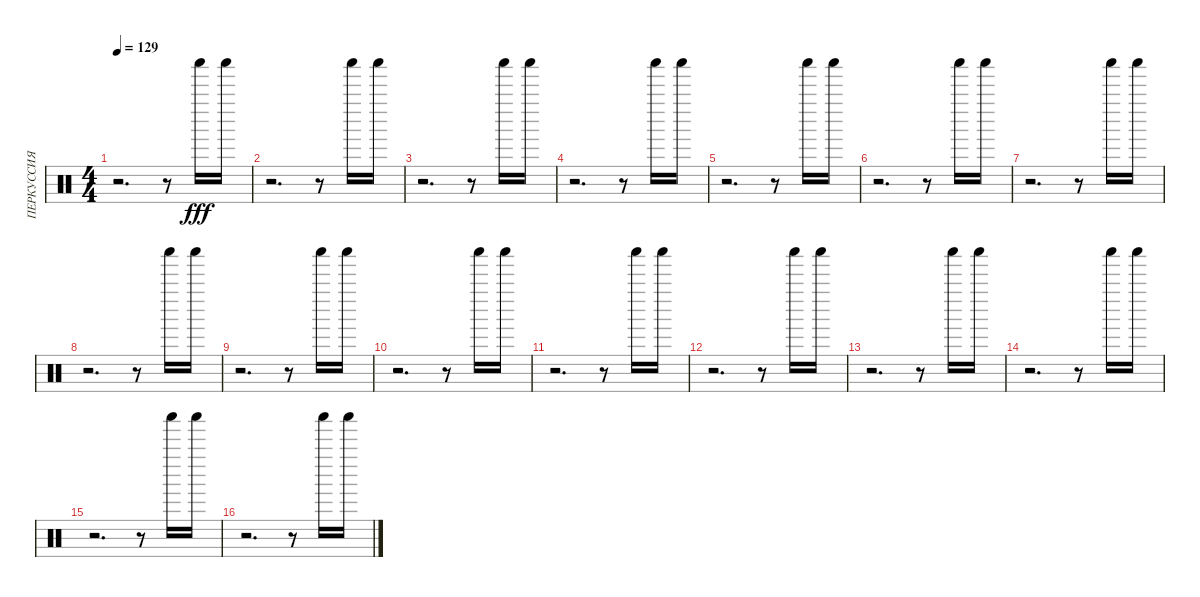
\track ("ПЕРКУССИЯ 2" "ПЕРКУССИЯ ") {instrument percussion}
\staff {score}
\articulation defaults
\ts (4 4)
\tempo 129
\clef neutral
\ks c
r.2{d dy fff} r.8 "Shaker (hit)".16 "Shaker (hit)".16 |
r.2{d} r.8 "Shaker (hit)".16 "Shaker (hit)".16 |
r.2{d} r.8 "Shaker (hit)".16 "Shaker (hit)".16 |
r.2{d} r.8 "Shaker (hit)".16 "Shaker (hit)".16 |
r.2{d} r.8 "Shaker (hit)".16 "Shaker (hit)".16 |
r.2{d} r.8 "Shaker (hit)".16 "Shaker (hit)".16 |
r.2{d} r.8 "Shaker (hit)".16 "Shaker (hit)".16 |
r.2{d} r.8 "Shaker (hit)".16 "Shaker (hit)".16 |
r.2{d} r.8 "Shaker (hit)".16 "Shaker (hit)".16 |
r.2{d} r.8 "Shaker (hit)".16 "Shaker (hit)".16 |
r.2{d} r.8 "Shaker (hit)".16 "Shaker (hit)".16 |
r.2{d} r.8 "Shaker (hit)".16 "Shaker (hit)".16 |
r.2{d} r.8 "Shaker (hit)".16 "Shaker (hit)".16 |
r.2{d} r.8 "Shaker (hit)".16 "Shaker (hit)".16 |
r.2{d} r.8 "Shaker (hit)".16 "Shaker (hit)".16 |
r.2{d} r.8 "Shaker (hit)".16 "Shaker (hit)".16
